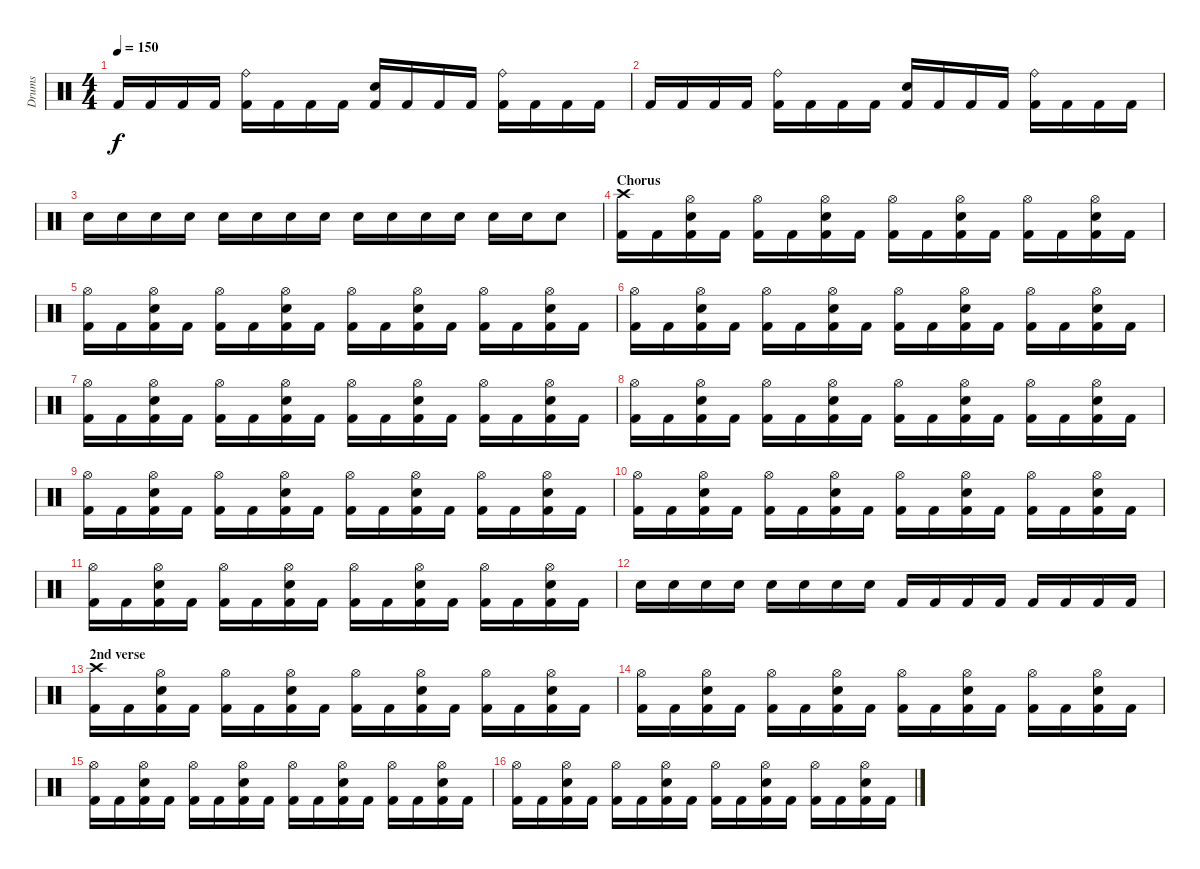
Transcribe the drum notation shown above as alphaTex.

\track ("Drums" "Drums") {instrument percussion}
\staff {score}
\articulation defaults
\ts (4 4)
\tempo 150
\clef neutral
\ks c "Kick (hit) 2".16{dy f} "Kick (hit) 2".16 "Kick (hit) 2".16 "Kick (hit) 2".16
("Ride (bell)" "Kick (hit) 2").16 "Kick (hit) 2".16 "Kick (hit) 2".16 "Kick (hit) 2".16 ("Snare (hit) 2" "Kick (hit) 2").16 "Kick (hit) 2".16 "Kick (hit) 2".16 "Kick (hit) 2".16 ("Ride (bell)" "Kick (hit) 2").16 "Kick (hit) 2".16 "Kick (hit) 2".16 "Kick (hit) 2".16 |
"Kick (hit) 2".16 "Kick (hit) 2".16 "Kick (hit) 2".16 "Kick (hit) 2".16 ("Ride (bell)" "Kick (hit) 2").16 "Kick (hit) 2".16 "Kick (hit) 2".16 "Kick (hit) 2".16 ("Snare (hit) 2" "Kick (hit) 2").16 "Kick (hit) 2".16 "Kick (hit) 2".16 "Kick (hit) 2".16 ("Ride (bell)" "Kick (hit) 2").16 "Kick (hit) 2".16 "Kick (hit) 2".16 "Kick (hit) 2".16 |
"Snare (hit) 2".16 "Snare (hit) 2".16 "Snare (hit) 2".16 "Snare (hit) 2".16 "Snare (hit) 2".16 "Snare (hit) 2".16 "Snare (hit) 2".16 "Snare (hit) 2".16 "Snare (hit) 2".16 "Snare (hit) 2".16 "Snare (hit) 2".16 "Snare (hit) 2".16 "Snare (hit) 2".16 "Snare (hit) 2".16 "Snare (hit) 2".8 |
\section ("" "Chorus")
("Crash high (hit)" "Kick (hit) 2").16 "Kick (hit) 2".16 ("Hi-Hat (open)" "Snare (hit) 2" "Kick (hit) 2").16 "Kick (hit) 2".16 ("Hi-Hat (open)" "Kick (hit) 2").16 "Kick (hit) 2".16 ("Hi-Hat (open)" "Snare (hit) 2" "Kick (hit) 2").16 "Kick (hit) 2".16 ("Hi-Hat (open)" "Kick (hit) 2").16 "Kick (hit) 2".16 ("Hi-Hat (open)" "Snare (hit) 2" "Kick (hit) 2").16 "Kick (hit) 2".16 ("Hi-Hat (open)" "Kick (hit) 2").16 "Kick (hit) 2".16 ("Hi-Hat (open)" "Snare (hit) 2" "Kick (hit) 2").16 "Kick (hit) 2".16 |
("Hi-Hat (open)" "Kick (hit) 2").16 "Kick (hit) 2".16 ("Hi-Hat (open)" "Snare (hit) 2" "Kick (hit) 2").16 "Kick (hit) 2".16 ("Hi-Hat (open)" "Kick (hit) 2").16 "Kick (hit) 2".16 ("Hi-Hat (open)" "Snare (hit) 2" "Kick (hit) 2").16 "Kick (hit) 2".16 ("Hi-Hat (open)" "Kick (hit) 2").16 "Kick (hit) 2".16 ("Hi-Hat (open)" "Snare (hit) 2" "Kick (hit) 2").16 "Kick (hit) 2".16 ("Hi-Hat (open)" "Kick (hit) 2").16 "Kick (hit) 2".16 ("Hi-Hat (open)" "Snare (hit) 2" "Kick (hit) 2").16 "Kick (hit) 2".16 |
("Hi-Hat (open)" "Kick (hit) 2").16 "Kick (hit) 2".16 ("Hi-Hat (open)" "Snare (hit) 2" "Kick (hit) 2").16 "Kick (hit) 2".16 ("Hi-Hat (open)" "Kick (hit) 2").16 "Kick (hit) 2".16 ("Hi-Hat (open)" "Snare (hit) 2" "Kick (hit) 2").16 "Kick (hit) 2".16 ("Hi-Hat (open)" "Kick (hit) 2").16 "Kick (hit) 2".16 ("Hi-Hat (open)" "Snare (hit) 2" "Kick (hit) 2").16 "Kick (hit) 2".16 ("Hi-Hat (open)" "Kick (hit) 2").16 "Kick (hit) 2".16 ("Hi-Hat (open)" "Snare (hit) 2" "Kick (hit) 2").16 "Kick (hit) 2".16 |
("Hi-Hat (open)" "Kick (hit) 2").16 "Kick (hit) 2".16 ("Hi-Hat (open)" "Snare (hit) 2" "Kick (hit) 2").16 "Kick (hit) 2".16 ("Hi-Hat (open)" "Kick (hit) 2").16 "Kick (hit) 2".16 ("Hi-Hat (open)" "Snare (hit) 2" "Kick (hit) 2").16 "Kick (hit) 2".16 ("Hi-Hat (open)" "Kick (hit) 2").16 "Kick (hit) 2".16 ("Hi-Hat (open)" "Snare (hit) 2" "Kick (hit) 2").16 "Kick (hit) 2".16 ("Hi-Hat (open)" "Kick (hit) 2").16 "Kick (hit) 2".16 ("Hi-Hat (open)" "Snare (hit) 2" "Kick (hit) 2").16 "Kick (hit) 2".16 |
("Hi-Hat (open)" "Kick (hit) 2").16 "Kick (hit) 2".16 ("Hi-Hat (open)" "Snare (hit) 2" "Kick (hit) 2").16 "Kick (hit) 2".16 ("Hi-Hat (open)" "Kick (hit) 2").16 "Kick (hit) 2".16 ("Hi-Hat (open)" "Snare (hit) 2" "Kick (hit) 2").16 "Kick (hit) 2".16 ("Hi-Hat (open)" "Kick (hit) 2").16 "Kick (hit) 2".16 ("Hi-Hat (open)" "Snare (hit) 2" "Kick (hit) 2").16 "Kick (hit) 2".16 ("Hi-Hat (open)" "Kick (hit) 2").16 "Kick (hit) 2".16 ("Hi-Hat (open)" "Snare (hit) 2" "Kick (hit) 2").16 "Kick (hit) 2".16 |
("Hi-Hat (open)" "Kick (hit) 2").16 "Kick (hit) 2".16 ("Hi-Hat (open)" "Snare (hit) 2" "Kick (hit) 2").16 "Kick (hit) 2".16 ("Hi-Hat (open)" "Kick (hit) 2").16 "Kick (hit) 2".16 ("Hi-Hat (open)" "Snare (hit) 2" "Kick (hit) 2").16 "Kick (hit) 2".16 ("Hi-Hat (open)" "Kick (hit) 2").16 "Kick (hit) 2".16 ("Hi-Hat (open)" "Snare (hit) 2" "Kick (hit) 2").16 "Kick (hit) 2".16 ("Hi-Hat (open)" "Kick (hit) 2").16 "Kick (hit) 2".16 ("Hi-Hat (open)" "Snare (hit) 2" "Kick (hit) 2").16 "Kick (hit) 2".16 |
("Hi-Hat (open)" "Kick (hit) 2").16 "Kick (hit) 2".16 ("Hi-Hat (open)" "Snare (hit) 2" "Kick (hit) 2").16 "Kick (hit) 2".16 ("Hi-Hat (open)" "Kick (hit) 2").16 "Kick (hit) 2".16 ("Hi-Hat (open)" "Snare (hit) 2" "Kick (hit) 2").16 "Kick (hit) 2".16 ("Hi-Hat (open)" "Kick (hit) 2").16 "Kick (hit) 2".16 ("Hi-Hat (open)" "Snare (hit) 2" "Kick (hit) 2").16 "Kick (hit) 2".16 ("Hi-Hat (open)" "Kick (hit) 2").16 "Kick (hit) 2".16 ("Hi-Hat (open)" "Snare (hit) 2" "Kick (hit) 2").16 "Kick (hit) 2".16 |
("Hi-Hat (open)" "Kick (hit) 2").16 "Kick (hit) 2".16 ("Hi-Hat (open)" "Snare (hit) 2" "Kick (hit) 2").16 "Kick (hit) 2".16 ("Hi-Hat (open)" "Kick (hit) 2").16 "Kick (hit) 2".16 ("Hi-Hat (open)" "Snare (hit) 2" "Kick (hit) 2").16 "Kick (hit) 2".16 ("Hi-Hat (open)" "Kick (hit) 2").16 "Kick (hit) 2".16 ("Hi-Hat (open)" "Snare (hit) 2" "Kick (hit) 2").16 "Kick (hit) 2".16 ("Hi-Hat (open)" "Kick (hit) 2").16 "Kick (hit) 2".16 ("Hi-Hat (open)" "Snare (hit) 2" "Kick (hit) 2").16 "Kick (hit) 2".16 |
"Snare (hit) 2".16 "Snare (hit) 2".16 "Snare (hit) 2".16 "Snare (hit) 2".16 "Snare (hit) 2".16 "Snare (hit) 2".16 "Snare (hit) 2".16 "Snare (hit) 2".16 "Kick (hit) 2".16 "Kick (hit) 2".16 "Kick (hit) 2".16 "Kick (hit) 2".16 "Kick (hit) 2".16 "Kick (hit) 2".16 "Kick (hit) 2".16 "Kick (hit) 2".16 |
\section ("" "2nd verse")
("Crash high (hit)" "Kick (hit) 2").16 "Kick (hit) 2".16 ("Hi-Hat (open)" "Snare (hit) 2" "Kick (hit) 2").16 "Kick (hit) 2".16 ("Hi-Hat (open)" "Kick (hit) 2").16 "Kick (hit) 2".16 ("Hi-Hat (open)" "Snare (hit) 2" "Kick (hit) 2").16 "Kick (hit) 2".16 ("Hi-Hat (open)" "Kick (hit) 2").16 "Kick (hit) 2".16 ("Hi-Hat (open)" "Snare (hit) 2" "Kick (hit) 2").16 "Kick (hit) 2".16 ("Hi-Hat (open)" "Kick (hit) 2").16 "Kick (hit) 2".16 ("Hi-Hat (open)" "Snare (hit) 2" "Kick (hit) 2").16 "Kick (hit) 2".16 |
("Hi-Hat (open)" "Kick (hit) 2").16 "Kick (hit) 2".16 ("Hi-Hat (open)" "Snare (hit) 2" "Kick (hit) 2").16 "Kick (hit) 2".16 ("Hi-Hat (open)" "Kick (hit) 2").16 "Kick (hit) 2".16 ("Hi-Hat (open)" "Snare (hit) 2" "Kick (hit) 2").16 "Kick (hit) 2".16 ("Hi-Hat (open)" "Kick (hit) 2").16 "Kick (hit) 2".16 ("Hi-Hat (open)" "Snare (hit) 2" "Kick (hit) 2").16 "Kick (hit) 2".16 ("Hi-Hat (open)" "Kick (hit) 2").16 "Kick (hit) 2".16 ("Hi-Hat (open)" "Snare (hit) 2" "Kick (hit) 2").16 "Kick (hit) 2".16 |
("Hi-Hat (open)" "Kick (hit) 2").16 "Kick (hit) 2".16 ("Hi-Hat (open)" "Snare (hit) 2" "Kick (hit) 2").16 "Kick (hit) 2".16 ("Hi-Hat (open)" "Kick (hit) 2").16 "Kick (hit) 2".16 ("Hi-Hat (open)" "Snare (hit) 2" "Kick (hit) 2").16 "Kick (hit) 2".16 ("Hi-Hat (open)" "Kick (hit) 2").16 "Kick (hit) 2".16 ("Hi-Hat (open)" "Snare (hit) 2" "Kick (hit) 2").16 "Kick (hit) 2".16 ("Hi-Hat (open)" "Kick (hit) 2").16 "Kick (hit) 2".16 ("Hi-Hat (open)" "Snare (hit) 2" "Kick (hit) 2").16 "Kick (hit) 2".16 |
("Hi-Hat (open)" "Kick (hit) 2").16 "Kick (hit) 2".16 ("Hi-Hat (open)" "Snare (hit) 2" "Kick (hit) 2").16 "Kick (hit) 2".16 ("Hi-Hat (open)" "Kick (hit) 2").16 "Kick (hit) 2".16 ("Hi-Hat (open)" "Snare (hit) 2" "Kick (hit) 2").16 "Kick (hit) 2".16 ("Hi-Hat (open)" "Kick (hit) 2").16 "Kick (hit) 2".16 ("Hi-Hat (open)" "Snare (hit) 2" "Kick (hit) 2").16 "Kick (hit) 2".16 ("Hi-Hat (open)" "Kick (hit) 2").16 "Kick (hit) 2".16 ("Hi-Hat (open)" "Snare (hit) 2" "Kick (hit) 2").16 "Kick (hit) 2".16
